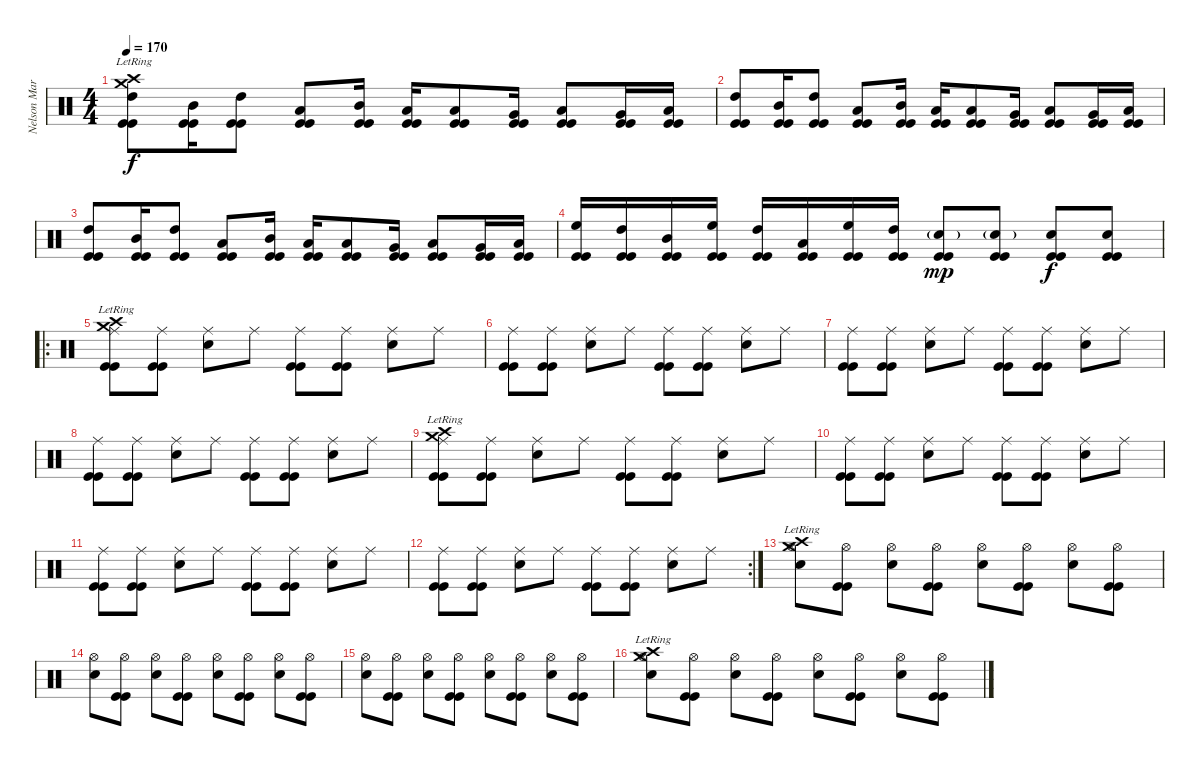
\track ("Nelson Maria" "Nelson Mar") {instrument percussion}
\staff {score}
\articulation defaults
\ts (4 4)
\tempo 170
\clef neutral
\ks c
("Crash high (hit)"{lr} "Crash medium (hit)"{lr} "High Tom (hit)" "Kick (hit)" "Kick (hit)").8{dy f} ("Mid Tom (hit)" "Kick (hit)" "Kick (hit)").16 ("High Tom (hit)" "Kick (hit)" "Kick (hit)").8 ("Low Tom (hit)" "Kick (hit)" "Kick (hit)").8 ("Mid Tom (hit)" "Kick (hit)" "Kick (hit)").16 ("Low Tom (hit)" "Kick (hit)" "Kick (hit)").16 ("Low Tom (hit)" "Kick (hit)" "Kick (hit)").8 ("Very Low Tom (hit)" "Kick (hit)" "Kick (hit)").16 ("Low Floor Tom (hit)" "Kick (hit)" "Kick (hit)").8 ("Very Low Tom (hit)" "Kick (hit)" "Kick (hit)").16 ("Low Floor Tom (hit)" "Kick (hit)" "Kick (hit)").16 |
("High Tom (hit)" "Kick (hit)" "Kick (hit)").8 ("Mid Tom (hit)" "Kick (hit)" "Kick (hit)").16 ("High Tom (hit)" "Kick (hit)" "Kick (hit)").8 ("Low Tom (hit)" "Kick (hit)" "Kick (hit)").8 ("Mid Tom (hit)" "Kick (hit)" "Kick (hit)").16 ("Low Tom (hit)" "Kick (hit)" "Kick (hit)").16 ("Low Tom (hit)" "Kick (hit)" "Kick (hit)").8 ("Very Low Tom (hit)" "Kick (hit)" "Kick (hit)").16 ("Low Floor Tom (hit)" "Kick (hit)" "Kick (hit)").8 ("Very Low Tom (hit)" "Kick (hit)" "Kick (hit)").16 ("Low Floor Tom (hit)" "Kick (hit)" "Kick (hit)").16 |
("High Tom (hit)" "Kick (hit)" "Kick (hit)").8 ("Mid Tom (hit)" "Kick (hit)" "Kick (hit)").16 ("High Tom (hit)" "Kick (hit)" "Kick (hit)").8 ("Low Tom (hit)" "Kick (hit)" "Kick (hit)").8 ("Mid Tom (hit)" "Kick (hit)" "Kick (hit)").16 ("Low Tom (hit)" "Kick (hit)" "Kick (hit)").16 ("Low Tom (hit)" "Kick (hit)" "Kick (hit)").8 ("Very Low Tom (hit)" "Kick (hit)" "Kick (hit)").16 ("Low Floor Tom (hit)" "Kick (hit)" "Kick (hit)").8 ("Very Low Tom (hit)" "Kick (hit)" "Kick (hit)").16 ("Low Floor Tom (hit)" "Kick (hit)" "Kick (hit)").16 |
("High Floor Tom (hit)" "Kick (hit)" "Kick (hit)").16 ("High Tom (hit)" "Kick (hit)" "Kick (hit)").16 ("Mid Tom (hit)" "Kick (hit)" "Kick (hit)").16 ("High Floor Tom (hit)" "Kick (hit)" "Kick (hit)").16 ("High Tom (hit)" "Kick (hit)" "Kick (hit)").16 ("Low Tom (hit)" "Kick (hit)" "Kick (hit)").16 ("High Floor Tom (hit)" "Kick (hit)" "Kick (hit)").16 ("High Tom (hit)" "Kick (hit)" "Kick (hit)").16 ("Snare (hit) 2"{g} "Kick (hit)" "Kick (hit)").8{dy mp} ("Snare (hit) 2"{g} "Kick (hit)" "Kick (hit)").8 ("Snare (hit) 2" "Kick (hit)" "Kick (hit)").8{dy f} ("Snare (hit) 2" "Kick (hit)" "Kick (hit)").8 |
\ro
("Crash high (hit)"{lr} "Crash medium (hit)"{lr} "Ride (middle)" "Kick (hit)" "Kick (hit)").8 ("Ride (middle)" "Kick (hit)" "Kick (hit)").8 ("Snare (hit) 2" "Ride (middle)").8 "Ride (middle)".8 ("Ride (middle)" "Kick (hit)" "Kick (hit)").8 ("Ride (middle)" "Kick (hit)" "Kick (hit)").8 ("Snare (hit) 2" "Ride (middle)").8 "Ride (middle)".8 |
("Ride (middle)" "Kick (hit)" "Kick (hit)").8 ("Ride (middle)" "Kick (hit)" "Kick (hit)").8 ("Snare (hit) 2" "Ride (middle)").8 "Ride (middle)".8 ("Ride (middle)" "Kick (hit)" "Kick (hit)").8 ("Ride (middle)" "Kick (hit)" "Kick (hit)").8 ("Snare (hit) 2" "Ride (middle)").8 "Ride (middle)".8 |
("Ride (middle)" "Kick (hit)" "Kick (hit)").8 ("Ride (middle)" "Kick (hit)" "Kick (hit)").8 ("Snare (hit) 2" "Ride (middle)").8 "Ride (middle)".8 ("Ride (middle)" "Kick (hit)" "Kick (hit)").8 ("Ride (middle)" "Kick (hit)" "Kick (hit)").8 ("Snare (hit) 2" "Ride (middle)").8 "Ride (middle)".8 |
("Ride (middle)" "Kick (hit)" "Kick (hit)").8 ("Ride (middle)" "Kick (hit)" "Kick (hit)").8 ("Snare (hit) 2" "Ride (middle)").8 "Ride (middle)".8 ("Ride (middle)" "Kick (hit)" "Kick (hit)").8 ("Ride (middle)" "Kick (hit)" "Kick (hit)").8 ("Snare (hit) 2" "Ride (middle)").8 "Ride (middle)".8 |
("Crash high (hit)"{lr} "Crash medium (hit)"{lr} "Ride (middle)" "Kick (hit)" "Kick (hit)").8 ("Ride (middle)" "Kick (hit)" "Kick (hit)").8 ("Snare (hit) 2" "Ride (middle)").8 "Ride (middle)".8 ("Ride (middle)" "Kick (hit)" "Kick (hit)").8 ("Ride (middle)" "Kick (hit)" "Kick (hit)").8 ("Snare (hit) 2" "Ride (middle)").8 "Ride (middle)".8 |
("Ride (middle)" "Kick (hit)" "Kick (hit)").8 ("Ride (middle)" "Kick (hit)" "Kick (hit)").8 ("Snare (hit) 2" "Ride (middle)").8 "Ride (middle)".8 ("Ride (middle)" "Kick (hit)" "Kick (hit)").8 ("Ride (middle)" "Kick (hit)" "Kick (hit)").8 ("Snare (hit) 2" "Ride (middle)").8 "Ride (middle)".8 |
("Ride (middle)" "Kick (hit)" "Kick (hit)").8 ("Ride (middle)" "Kick (hit)" "Kick (hit)").8 ("Snare (hit) 2" "Ride (middle)").8 "Ride (middle)".8 ("Ride (middle)" "Kick (hit)" "Kick (hit)").8 ("Ride (middle)" "Kick (hit)" "Kick (hit)").8 ("Snare (hit) 2" "Ride (middle)").8 "Ride (middle)".8 |
\rc 2
("Ride (middle)" "Kick (hit)" "Kick (hit)").8 ("Ride (middle)" "Kick (hit)" "Kick (hit)").8 ("Snare (hit) 2" "Ride (middle)").8 "Ride (middle)".8 ("Ride (middle)" "Kick (hit)" "Kick (hit)").8 ("Ride (middle)" "Kick (hit)" "Kick (hit)").8 ("Snare (hit) 2" "Ride (middle)").8 "Ride (middle)".8 |
("Crash high (hit)"{lr} "Crash medium (hit)"{lr} "Snare (hit) 2" "Hi-Hat (open)").8 ("Hi-Hat (open)" "Kick (hit)" "Kick (hit)").8 ("Snare (hit) 2" "Hi-Hat (open)").8 ("Hi-Hat (open)" "Kick (hit)" "Kick (hit)").8 ("Snare (hit) 2" "Hi-Hat (open)").8 ("Hi-Hat (open)" "Kick (hit)" "Kick (hit)").8 ("Snare (hit) 2" "Hi-Hat (open)").8 ("Hi-Hat (open)" "Kick (hit)" "Kick (hit)").8 |
("Snare (hit) 2" "Hi-Hat (open)").8 ("Hi-Hat (open)" "Kick (hit)" "Kick (hit)").8 ("Snare (hit) 2" "Hi-Hat (open)").8 ("Hi-Hat (open)" "Kick (hit)" "Kick (hit)").8 ("Snare (hit) 2" "Hi-Hat (open)").8 ("Hi-Hat (open)" "Kick (hit)" "Kick (hit)").8 ("Snare (hit) 2" "Hi-Hat (open)").8 ("Hi-Hat (open)" "Kick (hit)" "Kick (hit)").8 |
("Snare (hit) 2" "Hi-Hat (open)").8 ("Hi-Hat (open)" "Kick (hit)" "Kick (hit)").8 ("Snare (hit) 2" "Hi-Hat (open)").8 ("Hi-Hat (open)" "Kick (hit)" "Kick (hit)").8 ("Snare (hit) 2" "Hi-Hat (open)").8 ("Hi-Hat (open)" "Kick (hit)" "Kick (hit)").8 ("Snare (hit) 2" "Hi-Hat (open)").8 ("Hi-Hat (open)" "Kick (hit)" "Kick (hit)").8 |
("Crash high (hit)"{lr} "Crash medium (hit)"{lr} "Snare (hit) 2" "Hi-Hat (open)").8 ("Hi-Hat (open)" "Kick (hit)" "Kick (hit)").8 ("Snare (hit) 2" "Hi-Hat (open)").8 ("Hi-Hat (open)" "Kick (hit)" "Kick (hit)").8 ("Snare (hit) 2" "Hi-Hat (open)").8 ("Hi-Hat (open)" "Kick (hit)" "Kick (hit)").8 ("Snare (hit) 2" "Hi-Hat (open)").8 ("Hi-Hat (open)" "Kick (hit)" "Kick (hit)").8
